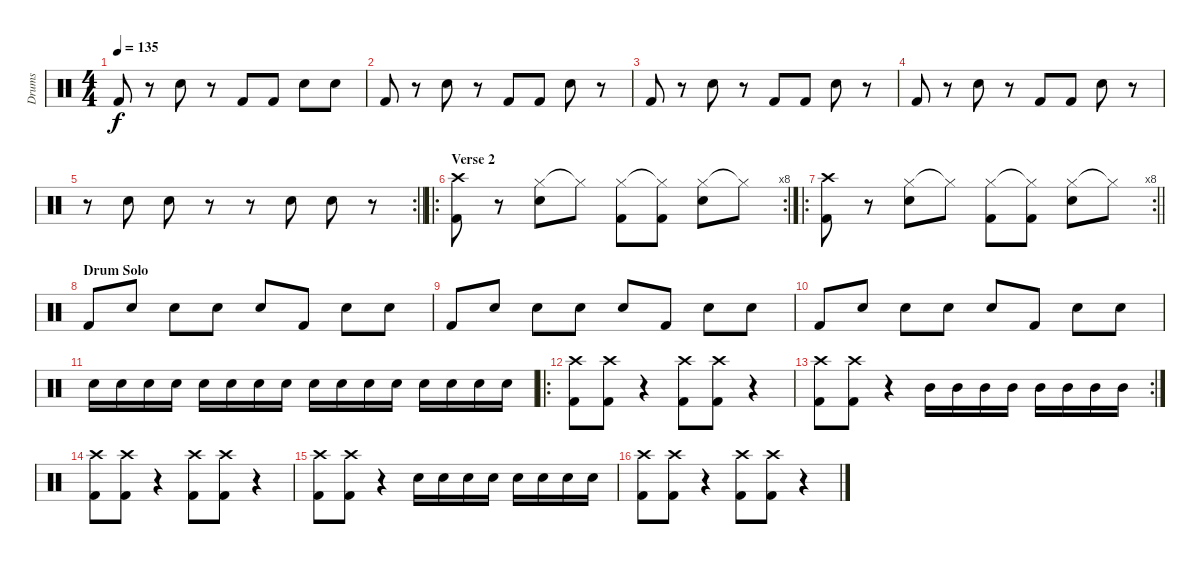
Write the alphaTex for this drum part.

\track ("Drums" "Drums") {instrument percussion}
\staff {score}
\articulation defaults
\ts (4 4)
\tempo 135
\clef neutral
\ks c "Kick (hit) 2".8{dy f}
r.8 "Snare (hit) 2".8 r.8 "Kick (hit) 2".8 "Kick (hit) 2".8 "Snare (hit) 2".8 "Snare (hit) 2".8 |
"Kick (hit) 2".8 r.8 "Snare (hit) 2".8 r.8 "Kick (hit) 2".8 "Kick (hit) 2".8 "Snare (hit) 2".8 r.8 |
"Kick (hit) 2".8 r.8 "Snare (hit) 2".8 r.8 "Kick (hit) 2".8 "Kick (hit) 2".8 "Snare (hit) 2".8 r.8 |
"Kick (hit) 2".8 r.8 "Snare (hit) 2".8 r.8 "Kick (hit) 2".8 "Kick (hit) 2".8 "Snare (hit) 2".8 r.8 |
\rc 2
\barLineRight lightlight
r.8 "Snare (hit) 2".8 "Snare (hit) 2".8 r.8 r.8 "Snare (hit) 2".8 "Snare (hit) 2".8 r.8 |
\ro
\rc 8
\section ("" "Verse 2")
("Crash high (hit)" "Kick (hit) 2").8 r.8 ("Hi-Hat (closed)" "Snare (hit) 2").8 "Hi-Hat (closed)"{t}.8 ("Hi-Hat (closed)" "Kick (hit) 2").8 ("Hi-Hat (closed)"{t} "Kick (hit) 2").8 ("Hi-Hat (closed)" "Snare (hit) 2").8 "Hi-Hat (closed)"{t}.8 |
\ro
\rc 8
\barLineRight lightlight
("Crash high (hit)" "Kick (hit) 2").8 r.8 ("Hi-Hat (closed)" "Snare (hit) 2").8 "Hi-Hat (closed)"{t}.8 ("Hi-Hat (closed)" "Kick (hit) 2").8 ("Hi-Hat (closed)"{t} "Kick (hit) 2").8 ("Hi-Hat (closed)" "Snare (hit) 2").8 "Hi-Hat (closed)"{t}.8 |
\section ("" "Drum Solo")
"Kick (hit) 2".8 "Snare (hit) 2".8 "Snare (hit) 2".8 "Snare (hit) 2".8 "Snare (hit) 2".8 "Kick (hit) 2".8 "Snare (hit) 2".8 "Snare (hit) 2".8 |
"Kick (hit) 2".8 "Snare (hit) 2".8 "Snare (hit) 2".8 "Snare (hit) 2".8 "Snare (hit) 2".8 "Kick (hit) 2".8 "Snare (hit) 2".8 "Snare (hit) 2".8 |
"Kick (hit) 2".8 "Snare (hit) 2".8 "Snare (hit) 2".8 "Snare (hit) 2".8 "Snare (hit) 2".8 "Kick (hit) 2".8 "Snare (hit) 2".8 "Snare (hit) 2".8 |
"Snare (hit) 2".16 "Snare (hit) 2".16 "Snare (hit) 2".16 "Snare (hit) 2".16 "Snare (hit) 2".16 "Snare (hit) 2".16 "Snare (hit) 2".16 "Snare (hit) 2".16 "Snare (hit) 2".16 "Snare (hit) 2".16 "Snare (hit) 2".16 "Snare (hit) 2".16 "Snare (hit) 2".16 "Snare (hit) 2".16 "Snare (hit) 2".16 "Snare (hit) 2".16 |
\ro
("Crash high (hit)" "Kick (hit) 2").8 ("Crash high (hit)" "Kick (hit) 2").8 r.4 ("Crash high (hit)" "Kick (hit) 2").8 ("Crash high (hit)" "Kick (hit) 2").8 r.4 |
\rc 2
("Crash high (hit)" "Kick (hit) 2").8 ("Crash high (hit)" "Kick (hit) 2").8 r.4 "Mid Tom (hit)".16 "Mid Tom (hit)".16 "Mid Tom (hit)".16 "Mid Tom (hit)".16 "Mid Tom (hit)".16 "Mid Tom (hit)".16 "Mid Tom (hit)".16 "Mid Tom (hit)".16 |
("Crash high (hit)" "Kick (hit) 2").8 ("Crash high (hit)" "Kick (hit) 2").8 r.4 ("Crash high (hit)" "Kick (hit) 2").8 ("Crash high (hit)" "Kick (hit) 2").8 r.4 |
("Crash high (hit)" "Kick (hit) 2").8 ("Crash high (hit)" "Kick (hit) 2").8 r.4 "Snare (hit) 2".16 "Snare (hit) 2".16 "Snare (hit) 2".16 "Snare (hit) 2".16 "Snare (hit) 2".16 "Snare (hit) 2".16 "Snare (hit) 2".16 "Snare (hit) 2".16 |
("Crash high (hit)" "Kick (hit) 2").8 ("Crash high (hit)" "Kick (hit) 2").8 r.4 ("Crash high (hit)" "Kick (hit) 2").8 ("Crash high (hit)" "Kick (hit) 2").8 r.4
